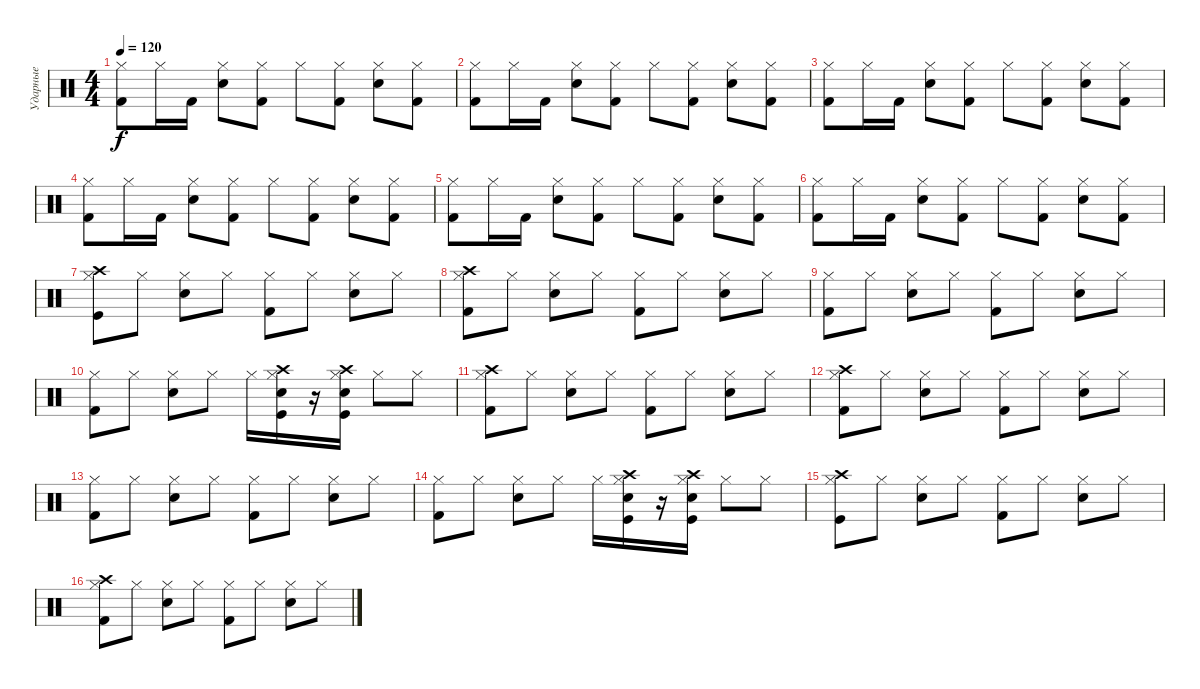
\track ("Ударные" "Ударные") {instrument percussion}
\staff {score}
\articulation defaults
\ts (4 4)
\tempo 120
\clef neutral
\ks c
("Hi-Hat (closed)" "Kick (hit) 2").8{dy f} "Hi-Hat (closed)".16 "Kick (hit) 2".16 ("Hi-Hat (closed)" "Electric Snare (hit)").8 ("Hi-Hat (closed)" "Kick (hit) 2").8 "Hi-Hat (closed)".8 ("Hi-Hat (closed)" "Kick (hit) 2").8 ("Hi-Hat (closed)" "Electric Snare (hit)").8 ("Hi-Hat (closed)" "Kick (hit) 2").8 |
("Hi-Hat (closed)" "Kick (hit) 2").8 "Hi-Hat (closed)".16 "Kick (hit) 2".16 ("Hi-Hat (closed)" "Electric Snare (hit)").8 ("Hi-Hat (closed)" "Kick (hit) 2").8 "Hi-Hat (closed)".8 ("Hi-Hat (closed)" "Kick (hit) 2").8 ("Hi-Hat (closed)" "Electric Snare (hit)").8 ("Hi-Hat (closed)" "Kick (hit) 2").8 |
("Hi-Hat (closed)" "Kick (hit) 2").8 "Hi-Hat (closed)".16 "Kick (hit) 2".16 ("Hi-Hat (closed)" "Electric Snare (hit)").8 ("Hi-Hat (closed)" "Kick (hit) 2").8 "Hi-Hat (closed)".8 ("Hi-Hat (closed)" "Kick (hit) 2").8 ("Hi-Hat (closed)" "Electric Snare (hit)").8 ("Hi-Hat (closed)" "Kick (hit) 2").8 |
("Hi-Hat (closed)" "Kick (hit) 2").8 "Hi-Hat (closed)".16 "Kick (hit) 2".16 ("Hi-Hat (closed)" "Electric Snare (hit)").8 ("Hi-Hat (closed)" "Kick (hit) 2").8 "Hi-Hat (closed)".8 ("Hi-Hat (closed)" "Kick (hit) 2").8 ("Hi-Hat (closed)" "Electric Snare (hit)").8 ("Hi-Hat (closed)" "Kick (hit) 2").8 |
("Hi-Hat (closed)" "Kick (hit) 2").8 "Hi-Hat (closed)".16 "Kick (hit) 2".16 ("Hi-Hat (closed)" "Electric Snare (hit)").8 ("Hi-Hat (closed)" "Kick (hit) 2").8 "Hi-Hat (closed)".8 ("Hi-Hat (closed)" "Kick (hit) 2").8 ("Hi-Hat (closed)" "Electric Snare (hit)").8 ("Hi-Hat (closed)" "Kick (hit) 2").8 |
("Hi-Hat (closed)" "Kick (hit) 2").8 "Hi-Hat (closed)".16 "Kick (hit) 2".16 ("Hi-Hat (closed)" "Electric Snare (hit)").8 ("Hi-Hat (closed)" "Kick (hit) 2").8 "Hi-Hat (closed)".8 ("Hi-Hat (closed)" "Kick (hit) 2").8 ("Hi-Hat (closed)" "Electric Snare (hit)").8 ("Hi-Hat (closed)" "Kick (hit) 2").8 |
("Hi-Hat (closed)" "Crash high (hit)" "Kick (hit)").8 "Hi-Hat (closed)".8 ("Hi-Hat (closed)" "Electric Snare (hit)").8 "Hi-Hat (closed)".8 ("Hi-Hat (closed)" "Kick (hit) 2").8 "Hi-Hat (closed)".8 ("Hi-Hat (closed)" "Electric Snare (hit)").8 "Hi-Hat (closed)".8 |
("Hi-Hat (closed)" "Crash high (hit)" "Kick (hit) 2").8 "Hi-Hat (closed)".8 ("Hi-Hat (closed)" "Electric Snare (hit)").8 "Hi-Hat (closed)".8 ("Hi-Hat (closed)" "Kick (hit) 2").8 "Hi-Hat (closed)".8 ("Hi-Hat (closed)" "Electric Snare (hit)").8 "Hi-Hat (closed)".8 |
("Hi-Hat (closed)" "Kick (hit) 2").8 "Hi-Hat (closed)".8 ("Hi-Hat (closed)" "Electric Snare (hit)").8 "Hi-Hat (closed)".8 ("Hi-Hat (closed)" "Kick (hit) 2").8 "Hi-Hat (closed)".8 ("Hi-Hat (closed)" "Electric Snare (hit)").8 "Hi-Hat (closed)".8 |
("Hi-Hat (closed)" "Kick (hit) 2").8 "Hi-Hat (closed)".8 ("Hi-Hat (closed)" "Electric Snare (hit)").8 "Hi-Hat (closed)".8 "Hi-Hat (closed)".16 ("Hi-Hat (closed)" "Electric Snare (hit)" "Crash high (hit)" "Kick (hit)").16 r.16 ("Hi-Hat (closed)" "Electric Snare (hit)" "Crash high (hit)" "Kick (hit)").16 "Hi-Hat (closed)".8 "Hi-Hat (closed)".8 |
("Hi-Hat (closed)" "Crash high (hit)" "Kick (hit) 2").8 "Hi-Hat (closed)".8 ("Hi-Hat (closed)" "Electric Snare (hit)").8 "Hi-Hat (closed)".8 ("Hi-Hat (closed)" "Kick (hit) 2").8 "Hi-Hat (closed)".8 ("Hi-Hat (closed)" "Electric Snare (hit)").8 "Hi-Hat (closed)".8 |
("Hi-Hat (closed)" "Crash high (hit)" "Kick (hit) 2").8 "Hi-Hat (closed)".8 ("Hi-Hat (closed)" "Electric Snare (hit)").8 "Hi-Hat (closed)".8 ("Hi-Hat (closed)" "Kick (hit) 2").8 "Hi-Hat (closed)".8 ("Hi-Hat (closed)" "Electric Snare (hit)").8 "Hi-Hat (closed)".8 |
("Hi-Hat (closed)" "Kick (hit) 2").8 "Hi-Hat (closed)".8 ("Hi-Hat (closed)" "Electric Snare (hit)").8 "Hi-Hat (closed)".8 ("Hi-Hat (closed)" "Kick (hit) 2").8 "Hi-Hat (closed)".8 ("Hi-Hat (closed)" "Electric Snare (hit)").8 "Hi-Hat (closed)".8 |
("Hi-Hat (closed)" "Kick (hit) 2").8 "Hi-Hat (closed)".8 ("Hi-Hat (closed)" "Electric Snare (hit)").8 "Hi-Hat (closed)".8 "Hi-Hat (closed)".16 ("Hi-Hat (closed)" "Electric Snare (hit)" "Crash high (hit)" "Kick (hit)").16 r.16 ("Hi-Hat (closed)" "Electric Snare (hit)" "Crash high (hit)" "Kick (hit)").16 "Hi-Hat (closed)".8 "Hi-Hat (closed)".8 |
("Hi-Hat (closed)" "Crash high (hit)" "Kick (hit)").8 "Hi-Hat (closed)".8 ("Hi-Hat (closed)" "Electric Snare (hit)").8 "Hi-Hat (closed)".8 ("Hi-Hat (closed)" "Kick (hit) 2").8 "Hi-Hat (closed)".8 ("Hi-Hat (closed)" "Electric Snare (hit)").8 "Hi-Hat (closed)".8 |
("Hi-Hat (closed)" "Crash high (hit)" "Kick (hit) 2").8 "Hi-Hat (closed)".8 ("Hi-Hat (closed)" "Electric Snare (hit)").8 "Hi-Hat (closed)".8 ("Hi-Hat (closed)" "Kick (hit) 2").8 "Hi-Hat (closed)".8 ("Hi-Hat (closed)" "Electric Snare (hit)").8 "Hi-Hat (closed)".8
